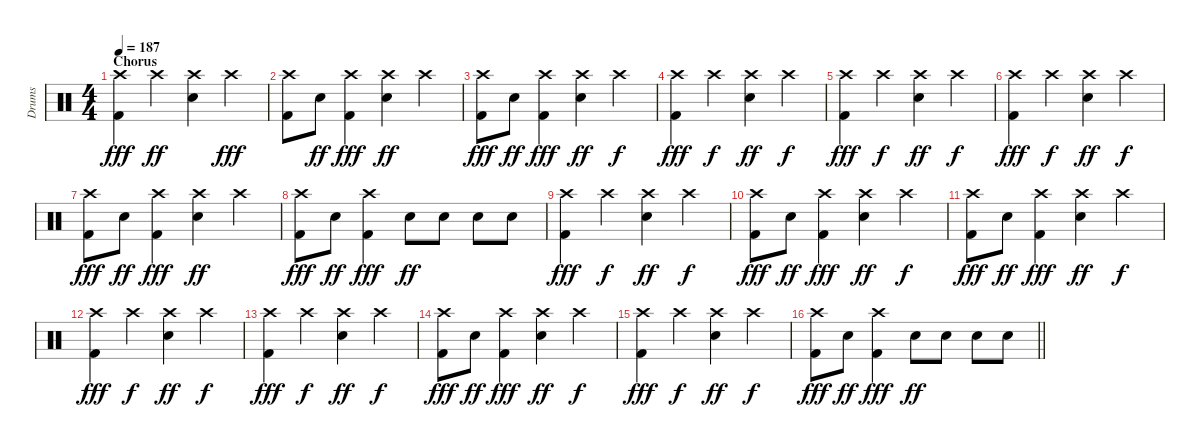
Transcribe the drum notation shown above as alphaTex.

\track ("Drums" "Drums") {instrument percussion}
\staff {score}
\articulation defaults
\ts (4 4)
\section ("" "Chorus")
\tempo 187
\clef neutral
\ks c
("Crash high (hit)" "Kick (hit) 2").4{dy fff} "Crash high (hit)".4{dy ff} ("Crash high (hit)" "Snare (hit) 2").4 "Crash high (hit)".4{dy fff} |
("Crash high (hit)" "Kick (hit) 2").8 "Snare (hit) 2".8{dy ff} ("Crash high (hit)" "Kick (hit) 2").4{dy fff} ("Crash high (hit)" "Snare (hit) 2").4{dy ff} "Crash high (hit)".4 |
("Crash high (hit)" "Kick (hit) 2").8{dy fff} "Snare (hit) 2".8{dy ff} ("Crash high (hit)" "Kick (hit) 2").4{dy fff} ("Crash high (hit)" "Snare (hit) 2").4{dy ff} "Crash high (hit)".4{dy f} |
("Crash high (hit)" "Kick (hit) 2").4{dy fff} "Crash high (hit)".4{dy f} ("Crash high (hit)" "Snare (hit) 2").4{dy ff} "Crash high (hit)".4{dy f} |
("Crash high (hit)" "Kick (hit) 2").4{dy fff} "Crash high (hit)".4{dy f} ("Crash high (hit)" "Snare (hit) 2").4{dy ff} "Crash high (hit)".4{dy f} |
("Crash high (hit)" "Kick (hit) 2").4{dy fff} "Crash high (hit)".4{dy f} ("Crash high (hit)" "Snare (hit) 2").4{dy ff} "Crash high (hit)".4{dy f} |
("Crash high (hit)" "Kick (hit) 2").8{dy fff} "Snare (hit) 2".8{dy ff} ("Crash high (hit)" "Kick (hit) 2").4{dy fff} ("Crash high (hit)" "Snare (hit) 2").4{dy ff} "Crash high (hit)".4 |
("Crash high (hit)" "Kick (hit) 2").8{dy fff} "Snare (hit) 2".8{dy ff} ("Crash high (hit)" "Kick (hit) 2").4{dy fff} "Snare (hit) 2".8{dy ff} "Snare (hit) 2".8 "Snare (hit) 2".8 "Snare (hit) 2".8 |
("Crash high (hit)" "Kick (hit) 2").4{dy fff} "Crash high (hit)".4{dy f} ("Crash high (hit)" "Snare (hit) 2").4{dy ff} "Crash high (hit)".4{dy f} |
("Crash high (hit)" "Kick (hit) 2").8{dy fff} "Snare (hit) 2".8{dy ff} ("Crash high (hit)" "Kick (hit) 2").4{dy fff} ("Crash high (hit)" "Snare (hit) 2").4{dy ff} "Crash high (hit)".4{dy f} |
("Crash high (hit)" "Kick (hit) 2").8{dy fff} "Snare (hit) 2".8{dy ff} ("Crash high (hit)" "Kick (hit) 2").4{dy fff} ("Crash high (hit)" "Snare (hit) 2").4{dy ff} "Crash high (hit)".4{dy f} |
("Crash high (hit)" "Kick (hit) 2").4{dy fff} "Crash high (hit)".4{dy f} ("Crash high (hit)" "Snare (hit) 2").4{dy ff} "Crash high (hit)".4{dy f} |
("Crash high (hit)" "Kick (hit) 2").4{dy fff} "Crash high (hit)".4{dy f} ("Crash high (hit)" "Snare (hit) 2").4{dy ff} "Crash high (hit)".4{dy f} |
("Crash high (hit)" "Kick (hit) 2").8{dy fff} "Snare (hit) 2".8{dy ff} ("Crash high (hit)" "Kick (hit) 2").4{dy fff} ("Crash high (hit)" "Snare (hit) 2").4{dy ff} "Crash high (hit)".4{dy f} |
("Crash high (hit)" "Kick (hit) 2").4{dy fff} "Crash high (hit)".4{dy f} ("Crash high (hit)" "Snare (hit) 2").4{dy ff} "Crash high (hit)".4{dy f} |
\barLineRight lightlight
("Crash high (hit)" "Kick (hit) 2").8{dy fff} "Snare (hit) 2".8{dy ff} ("Crash high (hit)" "Kick (hit) 2").4{dy fff} "Snare (hit) 2".8{dy ff} "Snare (hit) 2".8 "Snare (hit) 2".8 "Snare (hit) 2".8
